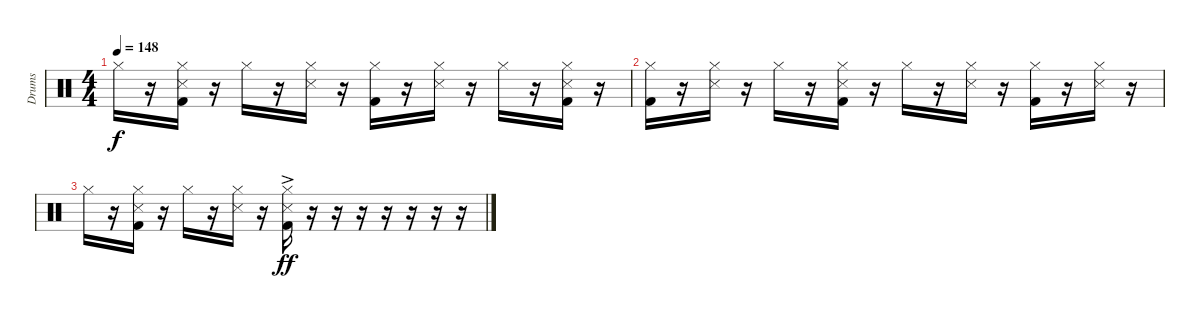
\track ("Drums" "Drums") {instrument percussion}
\staff {score}
\articulation defaults
\ts (4 4)
\tempo 148
\clef neutral
\ks c "Hi-Hat (closed)".16{dy f}
r.16 ("Hi-Hat (closed)" "Snare (side stick) 3" "Kick (hit) 2").16 r.16 "Hi-Hat (closed)".16 r.16 ("Hi-Hat (closed)" "Snare (side stick) 3").16 r.16 ("Hi-Hat (closed)" "Kick (hit) 2").16 r.16 ("Hi-Hat (closed)" "Snare (side stick) 3").16 r.16 "Hi-Hat (closed)".16 r.16 ("Hi-Hat (closed)" "Snare (side stick) 3" "Kick (hit) 2").16 r.16 |
("Hi-Hat (closed)" "Kick (hit) 2").16 r.16 ("Hi-Hat (closed)" "Snare (side stick) 3").16 r.16 "Hi-Hat (closed)".16 r.16 ("Hi-Hat (closed)" "Snare (side stick) 3" "Kick (hit) 2").16 r.16 "Hi-Hat (closed)".16 r.16 ("Hi-Hat (closed)" "Snare (side stick) 3").16 r.16 ("Hi-Hat (closed)" "Kick (hit) 2").16 r.16 ("Hi-Hat (closed)" "Snare (side stick) 3").16 r.16 |
"Hi-Hat (closed)".16 r.16 ("Hi-Hat (closed)" "Snare (side stick) 3" "Kick (hit) 2").16 r.16 "Hi-Hat (closed)".16 r.16 ("Hi-Hat (closed)" "Snare (side stick) 3").16 r.16 ("Hi-Hat (closed)"{ac} "Snare (side stick) 3"{ac} "Kick (hit) 2"{ac}).16{dy ff} r.16 r.16 r.16 r.16 r.16 r.16 r.16
